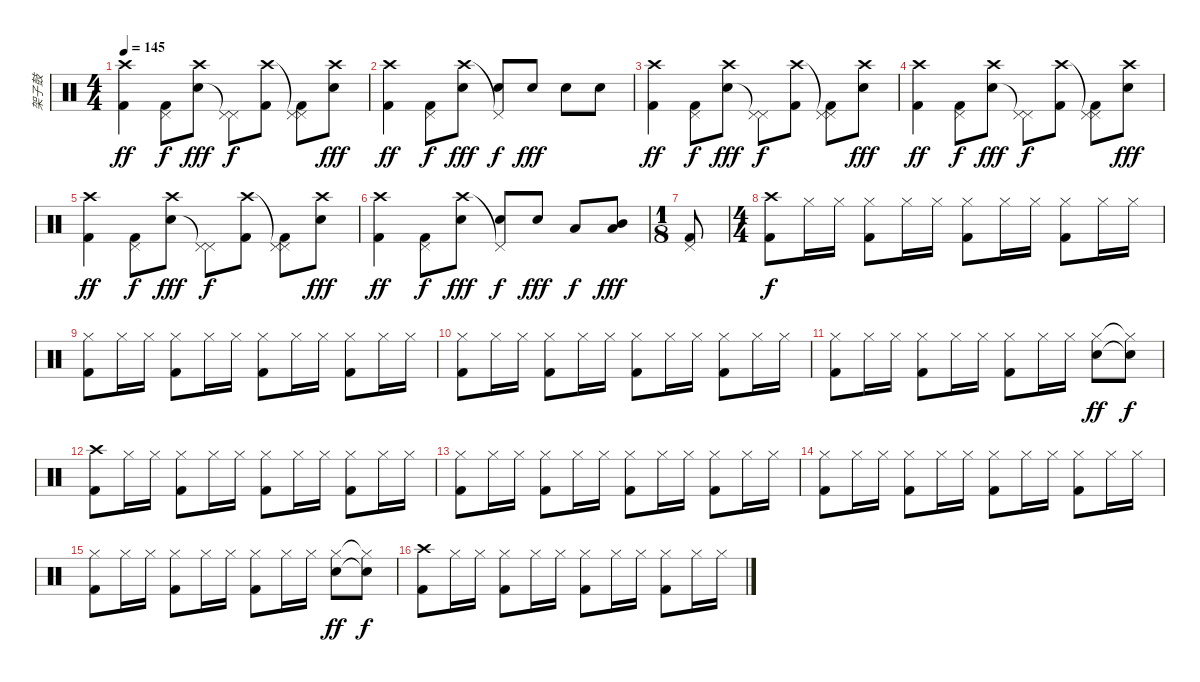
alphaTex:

\track ("架子鼓" "架子鼓") {instrument percussion}
\staff {score}
\articulation defaults
\ts (4 4)
\tempo 145
\clef neutral
\ks c
("Kick (hit) 2" "Crash high (hit)").4{dy ff} ("Kick (hit) 2" "Pedal Hi-Hat (hit)").8{dy f} ("Snare (hit) 2" "Crash high (hit)").8{dy fff} ("Pedal Hi-Hat (hit)"{t} "Pedal Hi-Hat (hit)").8{dy f} ("Kick (hit) 2" "Crash high (hit)").8 ("Kick (hit) 2" "Pedal Hi-Hat (hit)"{t} "Pedal Hi-Hat (hit)").8 ("Snare (hit) 2" "Crash high (hit)").8{dy fff} |
("Kick (hit) 2" "Crash high (hit)").4{dy ff} ("Kick (hit) 2" "Pedal Hi-Hat (hit)").8{dy f} ("Snare (hit) 2" "Crash high (hit)").8{dy fff} ("Snare (hit) 2" "Pedal Hi-Hat (hit)"{t}).8{dy f} "Snare (hit) 2".8{dy fff} "Snare (hit) 2".8 "Snare (hit) 2".8 |
("Kick (hit) 2" "Crash high (hit)").4{dy ff} ("Kick (hit) 2" "Pedal Hi-Hat (hit)").8{dy f} ("Snare (hit) 2" "Crash high (hit)").8{dy fff} ("Pedal Hi-Hat (hit)"{t} "Pedal Hi-Hat (hit)").8{dy f} ("Kick (hit) 2" "Crash high (hit)").8 ("Kick (hit) 2" "Pedal Hi-Hat (hit)"{t} "Pedal Hi-Hat (hit)").8 ("Snare (hit) 2" "Crash high (hit)").8{dy fff} |
("Kick (hit) 2" "Crash high (hit)").4{dy ff} ("Kick (hit) 2" "Pedal Hi-Hat (hit)").8{dy f} ("Snare (hit) 2" "Crash high (hit)").8{dy fff} ("Pedal Hi-Hat (hit)"{t} "Pedal Hi-Hat (hit)").8{dy f} ("Kick (hit) 2" "Crash high (hit)").8 ("Kick (hit) 2" "Pedal Hi-Hat (hit)"{t} "Pedal Hi-Hat (hit)").8 ("Snare (hit) 2" "Crash high (hit)").8{dy fff} |
("Kick (hit) 2" "Crash high (hit)").4{dy ff} ("Kick (hit) 2" "Pedal Hi-Hat (hit)").8{dy f} ("Snare (hit) 2" "Crash high (hit)").8{dy fff} ("Pedal Hi-Hat (hit)"{t} "Pedal Hi-Hat (hit)").8{dy f} ("Kick (hit) 2" "Crash high (hit)").8 ("Kick (hit) 2" "Pedal Hi-Hat (hit)"{t} "Pedal Hi-Hat (hit)").8 ("Snare (hit) 2" "Crash high (hit)").8{dy fff} |
("Kick (hit) 2" "Crash high (hit)").4{dy ff} ("Kick (hit) 2" "Pedal Hi-Hat (hit)").8{dy f} ("Snare (hit) 2" "Crash high (hit)").8{dy fff} ("Snare (hit) 2" "Pedal Hi-Hat (hit)"{t}).8{dy f} "Snare (hit) 2".8{dy fff} "Low Tom (hit)".8{dy f} ("Low Tom (hit)" "Mid Tom (hit)").8{dy fff} |
\ts (1 8)
("Kick (hit) 2" "Pedal Hi-Hat (hit)").8 |
\ts (4 4)
("Kick (hit) 2" "Crash high (hit)").8{dy f} "Hi-Hat (closed)".16 "Hi-Hat (closed)".16 ("Kick (hit) 2" "Hi-Hat (closed)").8 "Hi-Hat (closed)".16 "Hi-Hat (closed)".16 ("Kick (hit) 2" "Hi-Hat (closed)").8 "Hi-Hat (closed)".16 "Hi-Hat (closed)".16 ("Kick (hit) 2" "Hi-Hat (closed)").8 "Hi-Hat (closed)".16 "Hi-Hat (closed)".16 |
("Kick (hit) 2" "Hi-Hat (closed)").8 "Hi-Hat (closed)".16 "Hi-Hat (closed)".16 ("Kick (hit) 2" "Hi-Hat (closed)").8 "Hi-Hat (closed)".16 "Hi-Hat (closed)".16 ("Kick (hit) 2" "Hi-Hat (closed)").8 "Hi-Hat (closed)".16 "Hi-Hat (closed)".16 ("Kick (hit) 2" "Hi-Hat (closed)").8 "Hi-Hat (closed)".16 "Hi-Hat (closed)".16 |
("Kick (hit) 2" "Hi-Hat (closed)").8 "Hi-Hat (closed)".16 "Hi-Hat (closed)".16 ("Kick (hit) 2" "Hi-Hat (closed)").8 "Hi-Hat (closed)".16 "Hi-Hat (closed)".16 ("Kick (hit) 2" "Hi-Hat (closed)").8 "Hi-Hat (closed)".16 "Hi-Hat (closed)".16 ("Kick (hit) 2" "Hi-Hat (closed)").8 "Hi-Hat (closed)".16 "Hi-Hat (closed)".16 |
("Kick (hit) 2" "Hi-Hat (closed)").8 "Hi-Hat (closed)".16 "Hi-Hat (closed)".16 ("Kick (hit) 2" "Hi-Hat (closed)").8 "Hi-Hat (closed)".16 "Hi-Hat (closed)".16 ("Kick (hit) 2" "Hi-Hat (closed)").8 "Hi-Hat (closed)".16 "Hi-Hat (closed)".16 ("Hi-Hat (closed)" "Snare (hit) 2").8{dy ff} ("Hi-Hat (closed)"{t} "Snare (hit)"{t}).8{dy f} |
("Kick (hit) 2" "Crash high (hit)").8 "Hi-Hat (closed)".16 "Hi-Hat (closed)".16 ("Kick (hit) 2" "Hi-Hat (closed)").8 "Hi-Hat (closed)".16 "Hi-Hat (closed)".16 ("Kick (hit) 2" "Hi-Hat (closed)").8 "Hi-Hat (closed)".16 "Hi-Hat (closed)".16 ("Kick (hit) 2" "Hi-Hat (closed)").8 "Hi-Hat (closed)".16 "Hi-Hat (closed)".16 |
("Kick (hit) 2" "Hi-Hat (closed)").8 "Hi-Hat (closed)".16 "Hi-Hat (closed)".16 ("Kick (hit) 2" "Hi-Hat (closed)").8 "Hi-Hat (closed)".16 "Hi-Hat (closed)".16 ("Kick (hit) 2" "Hi-Hat (closed)").8 "Hi-Hat (closed)".16 "Hi-Hat (closed)".16 ("Kick (hit) 2" "Hi-Hat (closed)").8 "Hi-Hat (closed)".16 "Hi-Hat (closed)".16 |
("Kick (hit) 2" "Hi-Hat (closed)").8 "Hi-Hat (closed)".16 "Hi-Hat (closed)".16 ("Kick (hit) 2" "Hi-Hat (closed)").8 "Hi-Hat (closed)".16 "Hi-Hat (closed)".16 ("Kick (hit) 2" "Hi-Hat (closed)").8 "Hi-Hat (closed)".16 "Hi-Hat (closed)".16 ("Kick (hit) 2" "Hi-Hat (closed)").8 "Hi-Hat (closed)".16 "Hi-Hat (closed)".16 |
("Kick (hit) 2" "Hi-Hat (closed)").8 "Hi-Hat (closed)".16 "Hi-Hat (closed)".16 ("Kick (hit) 2" "Hi-Hat (closed)").8 "Hi-Hat (closed)".16 "Hi-Hat (closed)".16 ("Kick (hit) 2" "Hi-Hat (closed)").8 "Hi-Hat (closed)".16 "Hi-Hat (closed)".16 ("Hi-Hat (closed)" "Snare (hit) 2").8{dy ff} ("Hi-Hat (closed)"{t} "Snare (hit)"{t}).8{dy f} |
("Kick (hit) 2" "Crash high (hit)").8 "Hi-Hat (closed)".16 "Hi-Hat (closed)".16 ("Kick (hit) 2" "Hi-Hat (closed)").8 "Hi-Hat (closed)".16 "Hi-Hat (closed)".16 ("Kick (hit) 2" "Hi-Hat (closed)").8 "Hi-Hat (closed)".16 "Hi-Hat (closed)".16 ("Kick (hit) 2" "Hi-Hat (closed)").8 "Hi-Hat (closed)".16 "Hi-Hat (closed)".16
